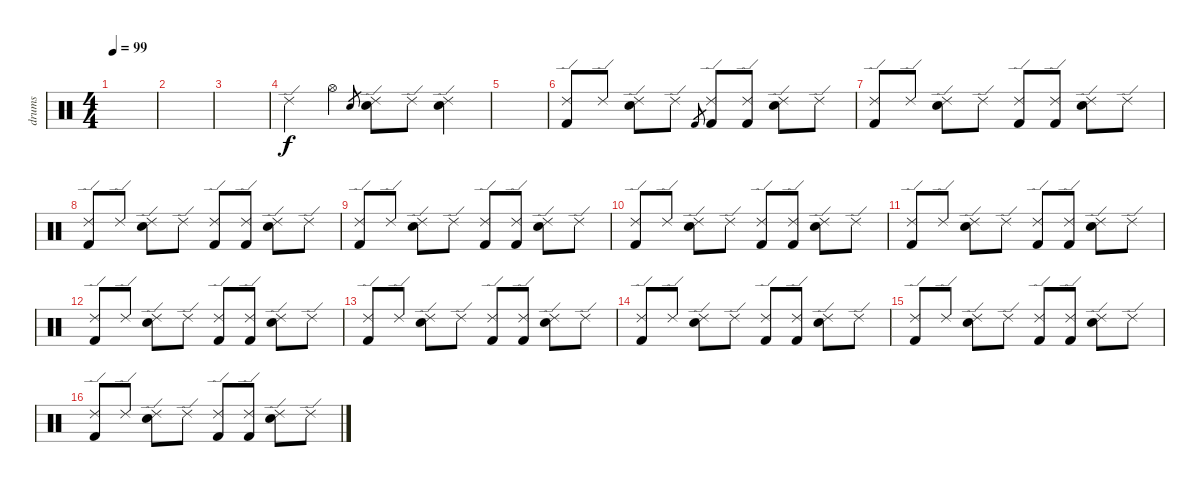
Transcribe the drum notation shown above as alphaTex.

\track ("drums" "drums") {instrument percussion}
\staff {score}
\articulation defaults
\ts (4 4)
\tempo 99
\clef neutral
\ks c
|
|
|
"Ride (edge) 2".4 "Hi-Hat (open)".4 "Snare (hit) 2".8{gr} ("Ride (edge) 2" "Snare (hit) 2").8 "Ride (edge) 2".8 ("Ride (edge) 2" "Snare (hit) 2").4 |
|
("Ride (edge) 2" "Kick (hit) 2").8 "Ride (edge) 2".8 ("Ride (edge) 2" "Snare (hit) 2").8 "Ride (edge) 2".8 "Kick (hit) 2".8{gr} ("Ride (edge) 2" "Kick (hit) 2").8 ("Ride (edge) 2" "Kick (hit) 2").8 ("Ride (edge) 2" "Snare (hit) 2").8 "Ride (edge) 2".8 |
("Ride (edge) 2" "Kick (hit) 2").8 "Ride (edge) 2".8 ("Ride (edge) 2" "Snare (hit) 2").8 "Ride (edge) 2".8 ("Ride (edge) 2" "Kick (hit) 2").8 ("Ride (edge) 2" "Kick (hit) 2").8 ("Ride (edge) 2" "Snare (hit) 2").8 "Ride (edge) 2".8 |
("Ride (edge) 2" "Kick (hit) 2").8 "Ride (edge) 2".8 ("Ride (edge) 2" "Snare (hit) 2").8 "Ride (edge) 2".8 ("Ride (edge) 2" "Kick (hit) 2").8 ("Ride (edge) 2" "Kick (hit) 2").8 ("Ride (edge) 2" "Snare (hit) 2").8 "Ride (edge) 2".8 |
("Ride (edge) 2" "Kick (hit) 2").8 "Ride (edge) 2".8 ("Ride (edge) 2" "Snare (hit) 2").8 "Ride (edge) 2".8 ("Ride (edge) 2" "Kick (hit) 2").8 ("Ride (edge) 2" "Kick (hit) 2").8 ("Ride (edge) 2" "Snare (hit) 2").8 "Ride (edge) 2".8 |
("Ride (edge) 2" "Kick (hit) 2").8 "Ride (edge) 2".8 ("Ride (edge) 2" "Snare (hit) 2").8 "Ride (edge) 2".8 ("Ride (edge) 2" "Kick (hit) 2").8 ("Ride (edge) 2" "Kick (hit) 2").8 ("Ride (edge) 2" "Snare (hit) 2").8 "Ride (edge) 2".8 |
("Ride (edge) 2" "Kick (hit) 2").8 "Ride (edge) 2".8 ("Ride (edge) 2" "Snare (hit) 2").8 "Ride (edge) 2".8 ("Ride (edge) 2" "Kick (hit) 2").8 ("Ride (edge) 2" "Kick (hit) 2").8 ("Ride (edge) 2" "Snare (hit) 2").8 "Ride (edge) 2".8 |
("Ride (edge) 2" "Kick (hit) 2").8 "Ride (edge) 2".8 ("Ride (edge) 2" "Snare (hit) 2").8 "Ride (edge) 2".8 ("Ride (edge) 2" "Kick (hit) 2").8 ("Ride (edge) 2" "Kick (hit) 2").8 ("Ride (edge) 2" "Snare (hit) 2").8 "Ride (edge) 2".8 |
("Ride (edge) 2" "Kick (hit) 2").8 "Ride (edge) 2".8 ("Ride (edge) 2" "Snare (hit) 2").8 "Ride (edge) 2".8 ("Ride (edge) 2" "Kick (hit) 2").8 ("Ride (edge) 2" "Kick (hit) 2").8 ("Ride (edge) 2" "Snare (hit) 2").8 "Ride (edge) 2".8 |
("Ride (edge) 2" "Kick (hit) 2").8 "Ride (edge) 2".8 ("Ride (edge) 2" "Snare (hit) 2").8 "Ride (edge) 2".8 ("Ride (edge) 2" "Kick (hit) 2").8 ("Ride (edge) 2" "Kick (hit) 2").8 ("Ride (edge) 2" "Snare (hit) 2").8 "Ride (edge) 2".8 |
("Ride (edge) 2" "Kick (hit) 2").8 "Ride (edge) 2".8 ("Ride (edge) 2" "Snare (hit) 2").8 "Ride (edge) 2".8 ("Ride (edge) 2" "Kick (hit) 2").8 ("Ride (edge) 2" "Kick (hit) 2").8 ("Ride (edge) 2" "Snare (hit) 2").8 "Ride (edge) 2".8 |
("Ride (edge) 2" "Kick (hit) 2").8 "Ride (edge) 2".8 ("Ride (edge) 2" "Snare (hit) 2").8 "Ride (edge) 2".8 ("Ride (edge) 2" "Kick (hit) 2").8 ("Ride (edge) 2" "Kick (hit) 2").8 ("Ride (edge) 2" "Snare (hit) 2").8 "Ride (edge) 2".8
